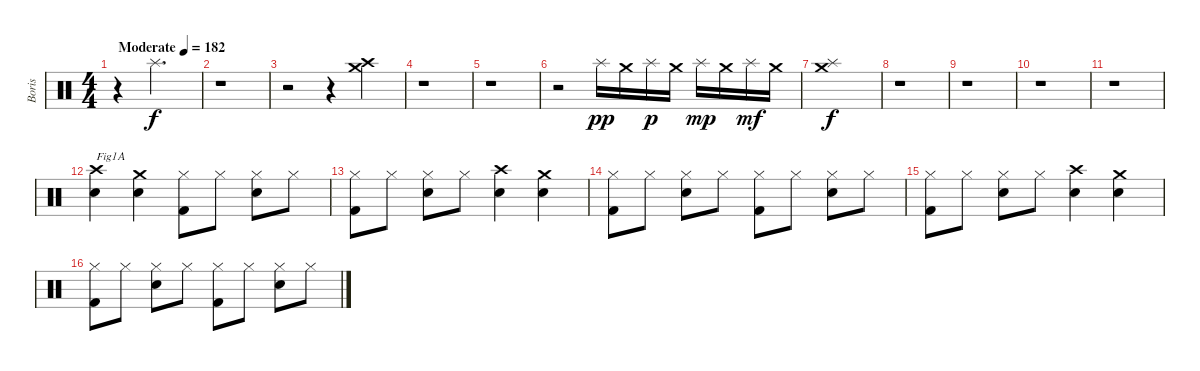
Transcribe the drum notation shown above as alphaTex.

\track ("Boris" "Boris") {instrument percussion}
\staff {score}
\articulation defaults
\ts (4 4)
\tempo (182 "Moderate")
\clef neutral
\ks c
r.4{dy f} "Splash (hit)".2{d} |
r.1 |
r.2 r.4 ("Crash high (hit)" "Crash medium (hit)").4 |
r.1 |
r.1 |
r.2 "Splash (hit)".16{dy pp} "Crash medium (hit)".16 "Splash (hit)".16{dy p} "Crash medium (hit)".16 "Splash (hit)".16{dy mp} "Crash medium (hit)".16 "Splash (hit)".16{dy mf} "Crash medium (hit)".16 |
("Splash (hit)" "Crash medium (hit)").1{dy f} |
r.1 |
r.1 |
r.1 |
r.1 |
("Electric Snare (hit)" "Crash high (hit)").4{txt "Fig1A"} ("Electric Snare (hit)" "Crash medium (hit)").4 ("Kick (hit) 2" "Hi-Hat (closed)").8 "Hi-Hat (closed)".8 ("Electric Snare (hit)" "Hi-Hat (closed)").8 "Hi-Hat (closed)".8 |
("Kick (hit) 2" "Hi-Hat (closed)").8 "Hi-Hat (closed)".8 ("Electric Snare (hit)" "Hi-Hat (closed)").8 "Hi-Hat (closed)".8 ("Electric Snare (hit)" "Crash high (hit)").4 ("Electric Snare (hit)" "Crash medium (hit)").4 |
("Kick (hit) 2" "Hi-Hat (closed)").8 "Hi-Hat (closed)".8 ("Electric Snare (hit)" "Hi-Hat (closed)").8 "Hi-Hat (closed)".8 ("Kick (hit) 2" "Hi-Hat (closed)").8 "Hi-Hat (closed)".8 ("Electric Snare (hit)" "Hi-Hat (closed)").8 "Hi-Hat (closed)".8 |
("Kick (hit) 2" "Hi-Hat (closed)").8 "Hi-Hat (closed)".8 ("Electric Snare (hit)" "Hi-Hat (closed)").8 "Hi-Hat (closed)".8 ("Electric Snare (hit)" "Crash high (hit)").4 ("Electric Snare (hit)" "Crash medium (hit)").4 |
("Kick (hit) 2" "Hi-Hat (closed)").8 "Hi-Hat (closed)".8 ("Electric Snare (hit)" "Hi-Hat (closed)").8 "Hi-Hat (closed)".8 ("Kick (hit) 2" "Hi-Hat (closed)").8 "Hi-Hat (closed)".8 ("Electric Snare (hit)" "Hi-Hat (closed)").8 "Hi-Hat (closed)".8
